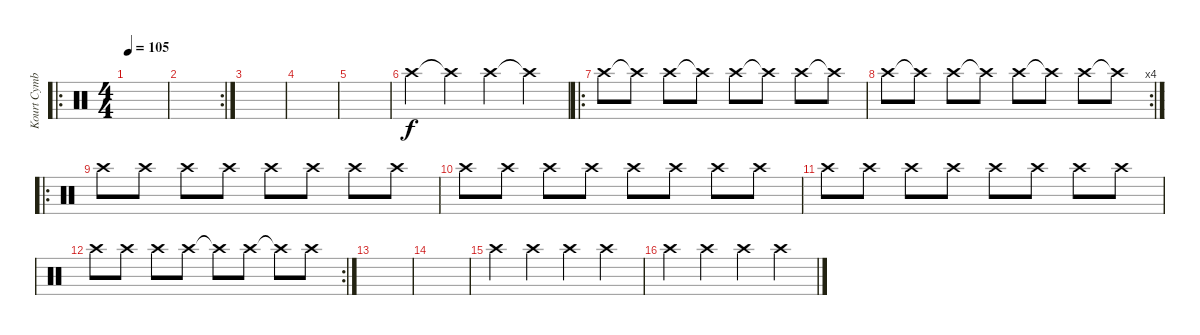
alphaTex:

\track ("Kourt Cymbales" "Kourt Cymb") {instrument percussion}
\staff {score}
\articulation defaults
\ro
\ts (4 4)
\tempo 105
\clef neutral
\ks c
|
\rc 2
|
|
|
|
"Crash high (hit)".4 "Crash high (hit)"{t}.4 "Crash high (hit)".4 "Crash high (hit)"{t}.4 |
\ro "Crash high (hit)".8 "Crash high (hit)"{t}.8 "Crash high (hit)".8 "Crash high (hit)"{t}.8 "Crash high (hit)".8 "Crash high (hit)"{t}.8 "Crash high (hit)".8 "Crash high (hit)"{t}.8
|
\rc 4 "Crash high (hit)".8 "Crash high (hit)"{t}.8 "Crash high (hit)".8 "Crash high (hit)"{t}.8 "Crash high (hit)".8 "Crash high (hit)"{t}.8 "Crash high (hit)".8 "Crash high (hit)"{t}.8
|
\ro "Crash high (hit)".8 "Crash high (hit)".8 "Crash high (hit)".8 "Crash high (hit)".8 "Crash high (hit)".8 "Crash high (hit)".8 "Crash high (hit)".8 "Crash high (hit)".8
|
"Crash high (hit)".8 "Crash high (hit)".8 "Crash high (hit)".8 "Crash high (hit)".8 "Crash high (hit)".8 "Crash high (hit)".8 "Crash high (hit)".8 "Crash high (hit)".8 |
"Crash high (hit)".8 "Crash high (hit)".8 "Crash high (hit)".8 "Crash high (hit)".8 "Crash high (hit)".8 "Crash high (hit)".8 "Crash high (hit)".8 "Crash high (hit)".8 |
\rc 2 "Crash high (hit)".8 "Crash high (hit)".8 "Crash high (hit)".8 "Crash high (hit)".8 "Crash high (hit)"{t}.8 "Crash high (hit)".8 "Crash high (hit)"{t}.8 "Crash high (hit)".8
|
|
|
"Crash high (hit)".4 "Crash high (hit)".4 "Crash high (hit)".4 "Crash high (hit)".4 |
"Crash high (hit)".4 "Crash high (hit)".4 "Crash high (hit)".4 "Crash high (hit)".4
